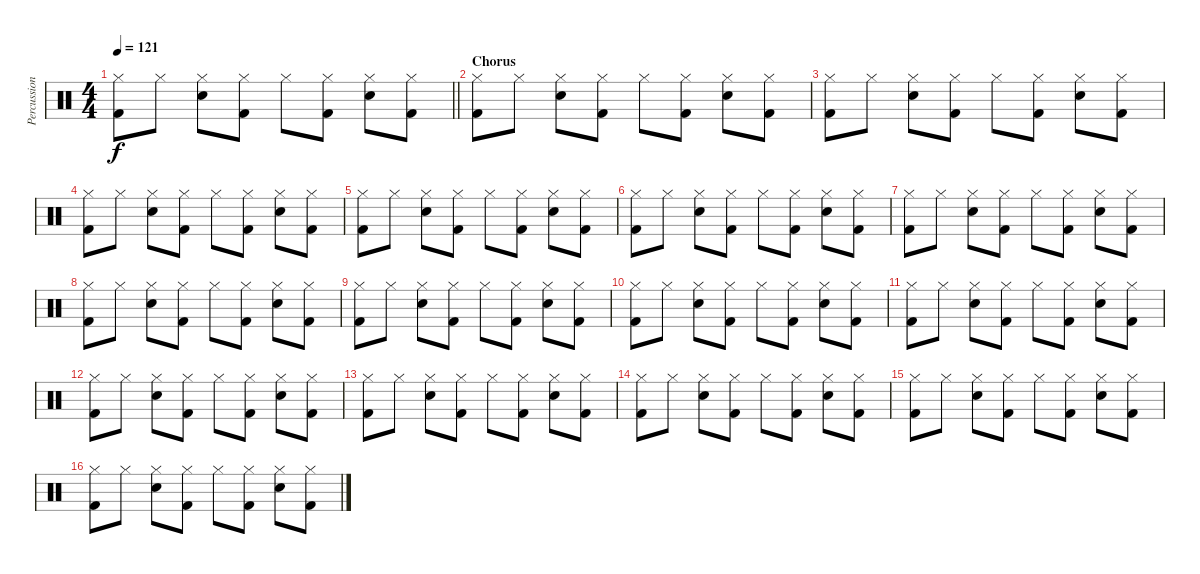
\track ("Percussion" "Percussion") {instrument percussion}
\staff {score}
\articulation defaults
\ts (4 4)
\tempo 121
\clef neutral
\barLineRight lightlight
\ks c
("Hi-Hat (closed)" "Kick (hit) 2").8{dy f} "Hi-Hat (closed)".8 ("Hi-Hat (closed)" "Snare (hit) 2").8 ("Hi-Hat (closed)" "Kick (hit) 2").8 "Hi-Hat (closed)".8 ("Hi-Hat (closed)" "Kick (hit) 2").8 ("Hi-Hat (closed)" "Snare (hit) 2").8 ("Hi-Hat (closed)" "Kick (hit) 2").8 |
\section ("" "Chorus")
("Hi-Hat (closed)" "Kick (hit) 2").8 "Hi-Hat (closed)".8 ("Hi-Hat (closed)" "Snare (hit) 2").8 ("Hi-Hat (closed)" "Kick (hit) 2").8 "Hi-Hat (closed)".8 ("Hi-Hat (closed)" "Kick (hit) 2").8 ("Hi-Hat (closed)" "Snare (hit) 2").8 ("Hi-Hat (closed)" "Kick (hit) 2").8 |
("Hi-Hat (closed)" "Kick (hit) 2").8 "Hi-Hat (closed)".8 ("Hi-Hat (closed)" "Snare (hit) 2").8 ("Hi-Hat (closed)" "Kick (hit) 2").8 "Hi-Hat (closed)".8 ("Hi-Hat (closed)" "Kick (hit) 2").8 ("Hi-Hat (closed)" "Snare (hit) 2").8 ("Hi-Hat (closed)" "Kick (hit) 2").8 |
("Hi-Hat (closed)" "Kick (hit) 2").8 "Hi-Hat (closed)".8 ("Hi-Hat (closed)" "Snare (hit) 2").8 ("Hi-Hat (closed)" "Kick (hit) 2").8 "Hi-Hat (closed)".8 ("Hi-Hat (closed)" "Kick (hit) 2").8 ("Hi-Hat (closed)" "Snare (hit) 2").8 ("Hi-Hat (closed)" "Kick (hit) 2").8 |
("Hi-Hat (closed)" "Kick (hit) 2").8 "Hi-Hat (closed)".8 ("Hi-Hat (closed)" "Snare (hit) 2").8 ("Hi-Hat (closed)" "Kick (hit) 2").8 "Hi-Hat (closed)".8 ("Hi-Hat (closed)" "Kick (hit) 2").8 ("Hi-Hat (closed)" "Snare (hit) 2").8 ("Hi-Hat (closed)" "Kick (hit) 2").8 |
("Hi-Hat (closed)" "Kick (hit) 2").8 "Hi-Hat (closed)".8 ("Hi-Hat (closed)" "Snare (hit) 2").8 ("Hi-Hat (closed)" "Kick (hit) 2").8 "Hi-Hat (closed)".8 ("Hi-Hat (closed)" "Kick (hit) 2").8 ("Hi-Hat (closed)" "Snare (hit) 2").8 ("Hi-Hat (closed)" "Kick (hit) 2").8 |
("Hi-Hat (closed)" "Kick (hit) 2").8 "Hi-Hat (closed)".8 ("Hi-Hat (closed)" "Snare (hit) 2").8 ("Hi-Hat (closed)" "Kick (hit) 2").8 "Hi-Hat (closed)".8 ("Hi-Hat (closed)" "Kick (hit) 2").8 ("Hi-Hat (closed)" "Snare (hit) 2").8 ("Hi-Hat (closed)" "Kick (hit) 2").8 |
("Hi-Hat (closed)" "Kick (hit) 2").8 "Hi-Hat (closed)".8 ("Hi-Hat (closed)" "Snare (hit) 2").8 ("Hi-Hat (closed)" "Kick (hit) 2").8 "Hi-Hat (closed)".8 ("Hi-Hat (closed)" "Kick (hit) 2").8 ("Hi-Hat (closed)" "Snare (hit) 2").8 ("Hi-Hat (closed)" "Kick (hit) 2").8 |
("Hi-Hat (closed)" "Kick (hit) 2").8 "Hi-Hat (closed)".8 ("Hi-Hat (closed)" "Snare (hit) 2").8 ("Hi-Hat (closed)" "Kick (hit) 2").8 "Hi-Hat (closed)".8 ("Hi-Hat (closed)" "Kick (hit) 2").8 ("Hi-Hat (closed)" "Snare (hit) 2").8 ("Hi-Hat (closed)" "Kick (hit) 2").8 |
("Hi-Hat (closed)" "Kick (hit) 2").8 "Hi-Hat (closed)".8 ("Hi-Hat (closed)" "Snare (hit) 2").8 ("Hi-Hat (closed)" "Kick (hit) 2").8 "Hi-Hat (closed)".8 ("Hi-Hat (closed)" "Kick (hit) 2").8 ("Hi-Hat (closed)" "Snare (hit) 2").8 ("Hi-Hat (closed)" "Kick (hit) 2").8 |
("Hi-Hat (closed)" "Kick (hit) 2").8 "Hi-Hat (closed)".8 ("Hi-Hat (closed)" "Snare (hit) 2").8 ("Hi-Hat (closed)" "Kick (hit) 2").8 "Hi-Hat (closed)".8 ("Hi-Hat (closed)" "Kick (hit) 2").8 ("Hi-Hat (closed)" "Snare (hit) 2").8 ("Hi-Hat (closed)" "Kick (hit) 2").8 |
("Hi-Hat (closed)" "Kick (hit) 2").8 "Hi-Hat (closed)".8 ("Hi-Hat (closed)" "Snare (hit) 2").8 ("Hi-Hat (closed)" "Kick (hit) 2").8 "Hi-Hat (closed)".8 ("Hi-Hat (closed)" "Kick (hit) 2").8 ("Hi-Hat (closed)" "Snare (hit) 2").8 ("Hi-Hat (closed)" "Kick (hit) 2").8 |
("Hi-Hat (closed)" "Kick (hit) 2").8 "Hi-Hat (closed)".8 ("Hi-Hat (closed)" "Snare (hit) 2").8 ("Hi-Hat (closed)" "Kick (hit) 2").8 "Hi-Hat (closed)".8 ("Hi-Hat (closed)" "Kick (hit) 2").8 ("Hi-Hat (closed)" "Snare (hit) 2").8 ("Hi-Hat (closed)" "Kick (hit) 2").8 |
("Hi-Hat (closed)" "Kick (hit) 2").8 "Hi-Hat (closed)".8 ("Hi-Hat (closed)" "Snare (hit) 2").8 ("Hi-Hat (closed)" "Kick (hit) 2").8 "Hi-Hat (closed)".8 ("Hi-Hat (closed)" "Kick (hit) 2").8 ("Hi-Hat (closed)" "Snare (hit) 2").8 ("Hi-Hat (closed)" "Kick (hit) 2").8 |
("Hi-Hat (closed)" "Kick (hit) 2").8 "Hi-Hat (closed)".8 ("Hi-Hat (closed)" "Snare (hit) 2").8 ("Hi-Hat (closed)" "Kick (hit) 2").8 "Hi-Hat (closed)".8 ("Hi-Hat (closed)" "Kick (hit) 2").8 ("Hi-Hat (closed)" "Snare (hit) 2").8 ("Hi-Hat (closed)" "Kick (hit) 2").8 |
("Hi-Hat (closed)" "Kick (hit) 2").8 "Hi-Hat (closed)".8 ("Hi-Hat (closed)" "Snare (hit) 2").8 ("Hi-Hat (closed)" "Kick (hit) 2").8 "Hi-Hat (closed)".8 ("Hi-Hat (closed)" "Kick (hit) 2").8 ("Hi-Hat (closed)" "Snare (hit) 2").8 ("Hi-Hat (closed)" "Kick (hit) 2").8
